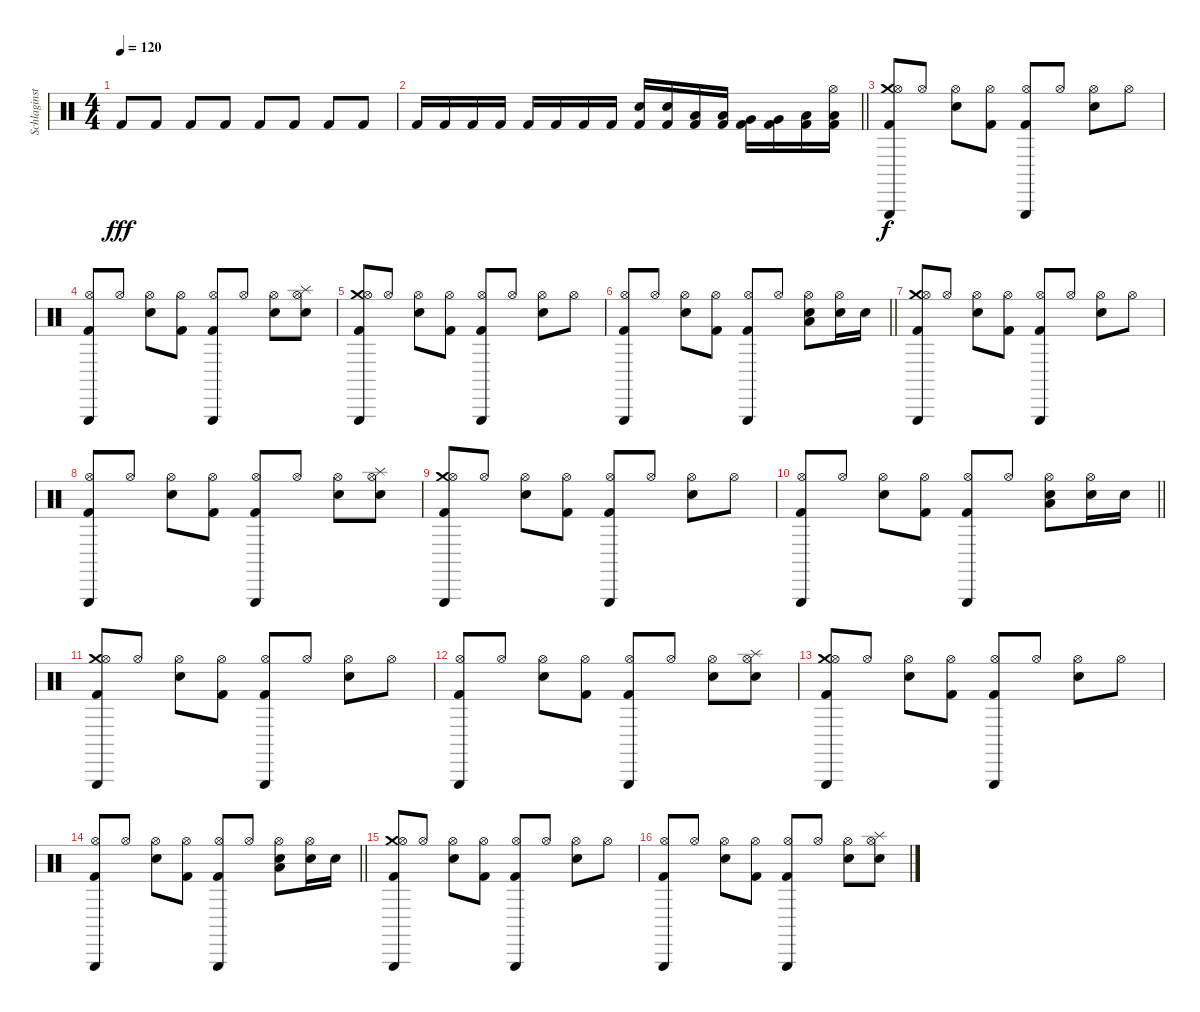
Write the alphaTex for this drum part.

\track ("Schlaginstrumente - Auswahl" "Schlaginst") {instrument percussion}
\staff {score}
\articulation defaults
\ts (4 4)
\tempo 120
\clef neutral
\ks c "Kick (hit) 2".8{dy fff} "Kick (hit) 2".8 "Kick (hit) 2".8 "Kick (hit) 2".8 "Kick (hit) 2".8 "Kick (hit) 2".8 "Kick (hit) 2".8 "Kick (hit) 2".8
|
\barLineRight lightlight "Kick (hit) 2".16 "Kick (hit) 2".16 "Kick (hit) 2".16 "Kick (hit) 2".16 "Kick (hit) 2".16 "Kick (hit) 2".16 "Kick (hit) 2".16 "Kick (hit) 2".16
("Snare (hit) 2" "Kick (hit) 2").16 ("Snare (hit) 2" "Kick (hit) 2").16 ("Low Tom (hit)" "Kick (hit) 2").16 ("Low Tom (hit)" "Kick (hit) 2").16 ("Very Low Tom (hit)" "Kick (hit) 2").16 ("Very Low Tom (hit)" "Kick (hit) 2").16 ("Low Floor Tom (hit)" "Kick (hit) 2").16 ("Hi-Hat (open)" "Low Floor Tom (hit)" "Kick (hit) 2").16 |
("Crash medium (hit)" "Triangle (hit)" "Hi-Hat (open)" "Kick (hit) 2").8{dy f} "Hi-Hat (open)".8 ("Hi-Hat (open)" "Snare (hit) 2").8 ("Hi-Hat (open)" "Kick (hit) 2").8 ("Triangle (hit)" "Hi-Hat (open)" "Kick (hit) 2").8 "Hi-Hat (open)".8 ("Hi-Hat (open)" "Snare (hit) 2").8 "Hi-Hat (open)".8 |
("Triangle (hit)" "Hi-Hat (open)" "Kick (hit) 2").8 "Hi-Hat (open)".8 ("Hi-Hat (open)" "Snare (hit) 2").8 ("Hi-Hat (open)" "Kick (hit) 2").8 ("Triangle (hit)" "Hi-Hat (open)" "Kick (hit) 2").8 "Hi-Hat (open)".8 ("Hi-Hat (open)" "Snare (hit) 2").8 ("Splash (hit)" "Hi-Hat (open)" "Snare (hit) 2").8 |
("Crash medium (hit)" "Triangle (hit)" "Hi-Hat (open)" "Kick (hit) 2").8 "Hi-Hat (open)".8 ("Hi-Hat (open)" "Snare (hit) 2").8 ("Hi-Hat (open)" "Kick (hit) 2").8 ("Triangle (hit)" "Hi-Hat (open)" "Kick (hit) 2").8 "Hi-Hat (open)".8 ("Hi-Hat (open)" "Snare (hit) 2").8 "Hi-Hat (open)".8 |
\barLineRight lightlight
("Triangle (hit)" "Hi-Hat (open)" "Kick (hit) 2").8 "Hi-Hat (open)".8 ("Hi-Hat (open)" "Snare (hit) 2").8 ("Hi-Hat (open)" "Kick (hit) 2").8 ("Triangle (hit)" "Hi-Hat (open)" "Kick (hit) 2").8 "Hi-Hat (open)".8 ("Low Tom (hit)" "Hi-Hat (open)" "Snare (hit) 2").8 ("Hi-Hat (open)" "Snare (hit) 2").16 "Snare (hit) 2".16 |
("Crash medium (hit)" "Triangle (hit)" "Hi-Hat (open)" "Kick (hit) 2").8 "Hi-Hat (open)".8 ("Hi-Hat (open)" "Snare (hit) 2").8 ("Hi-Hat (open)" "Kick (hit) 2").8 ("Triangle (hit)" "Hi-Hat (open)" "Kick (hit) 2").8 "Hi-Hat (open)".8 ("Hi-Hat (open)" "Snare (hit) 2").8 "Hi-Hat (open)".8 |
("Triangle (hit)" "Hi-Hat (open)" "Kick (hit) 2").8 "Hi-Hat (open)".8 ("Hi-Hat (open)" "Snare (hit) 2").8 ("Hi-Hat (open)" "Kick (hit) 2").8 ("Triangle (hit)" "Hi-Hat (open)" "Kick (hit) 2").8 "Hi-Hat (open)".8 ("Hi-Hat (open)" "Snare (hit) 2").8 ("Splash (hit)" "Hi-Hat (open)" "Snare (hit) 2").8 |
("Crash medium (hit)" "Triangle (hit)" "Hi-Hat (open)" "Kick (hit) 2").8 "Hi-Hat (open)".8 ("Hi-Hat (open)" "Snare (hit) 2").8 ("Hi-Hat (open)" "Kick (hit) 2").8 ("Triangle (hit)" "Hi-Hat (open)" "Kick (hit) 2").8 "Hi-Hat (open)".8 ("Hi-Hat (open)" "Snare (hit) 2").8 "Hi-Hat (open)".8 |
\barLineRight lightlight
("Triangle (hit)" "Hi-Hat (open)" "Kick (hit) 2").8 "Hi-Hat (open)".8 ("Hi-Hat (open)" "Snare (hit) 2").8 ("Hi-Hat (open)" "Kick (hit) 2").8 ("Triangle (hit)" "Hi-Hat (open)" "Kick (hit) 2").8 "Hi-Hat (open)".8 ("Low Tom (hit)" "Hi-Hat (open)" "Snare (hit) 2").8 ("Hi-Hat (open)" "Snare (hit) 2").16 "Snare (hit) 2".16 |
("Crash medium (hit)" "Triangle (hit)" "Hi-Hat (open)" "Kick (hit) 2").8 "Hi-Hat (open)".8 ("Hi-Hat (open)" "Snare (hit) 2").8 ("Hi-Hat (open)" "Kick (hit) 2").8 ("Triangle (hit)" "Hi-Hat (open)" "Kick (hit) 2").8 "Hi-Hat (open)".8 ("Hi-Hat (open)" "Snare (hit) 2").8 "Hi-Hat (open)".8 |
("Triangle (hit)" "Hi-Hat (open)" "Kick (hit) 2").8 "Hi-Hat (open)".8 ("Hi-Hat (open)" "Snare (hit) 2").8 ("Hi-Hat (open)" "Kick (hit) 2").8 ("Triangle (hit)" "Hi-Hat (open)" "Kick (hit) 2").8 "Hi-Hat (open)".8 ("Hi-Hat (open)" "Snare (hit) 2").8 ("Splash (hit)" "Hi-Hat (open)" "Snare (hit) 2").8 |
("Crash medium (hit)" "Triangle (hit)" "Hi-Hat (open)" "Kick (hit) 2").8 "Hi-Hat (open)".8 ("Hi-Hat (open)" "Snare (hit) 2").8 ("Hi-Hat (open)" "Kick (hit) 2").8 ("Triangle (hit)" "Hi-Hat (open)" "Kick (hit) 2").8 "Hi-Hat (open)".8 ("Hi-Hat (open)" "Snare (hit) 2").8 "Hi-Hat (open)".8 |
\barLineRight lightlight
("Triangle (hit)" "Hi-Hat (open)" "Kick (hit) 2").8 "Hi-Hat (open)".8 ("Hi-Hat (open)" "Snare (hit) 2").8 ("Hi-Hat (open)" "Kick (hit) 2").8 ("Triangle (hit)" "Hi-Hat (open)" "Kick (hit) 2").8 "Hi-Hat (open)".8 ("Low Tom (hit)" "Hi-Hat (open)" "Snare (hit) 2").8 ("Hi-Hat (open)" "Snare (hit) 2").16 "Snare (hit) 2".16 |
("Crash medium (hit)" "Triangle (hit)" "Hi-Hat (open)" "Kick (hit) 2").8 "Hi-Hat (open)".8 ("Hi-Hat (open)" "Snare (hit) 2").8 ("Hi-Hat (open)" "Kick (hit) 2").8 ("Triangle (hit)" "Hi-Hat (open)" "Kick (hit) 2").8 "Hi-Hat (open)".8 ("Hi-Hat (open)" "Snare (hit) 2").8 "Hi-Hat (open)".8 |
("Triangle (hit)" "Hi-Hat (open)" "Kick (hit) 2").8 "Hi-Hat (open)".8 ("Hi-Hat (open)" "Snare (hit) 2").8 ("Hi-Hat (open)" "Kick (hit) 2").8 ("Triangle (hit)" "Hi-Hat (open)" "Kick (hit) 2").8 "Hi-Hat (open)".8 ("Hi-Hat (open)" "Snare (hit) 2").8 ("Splash (hit)" "Hi-Hat (open)" "Snare (hit) 2").8
